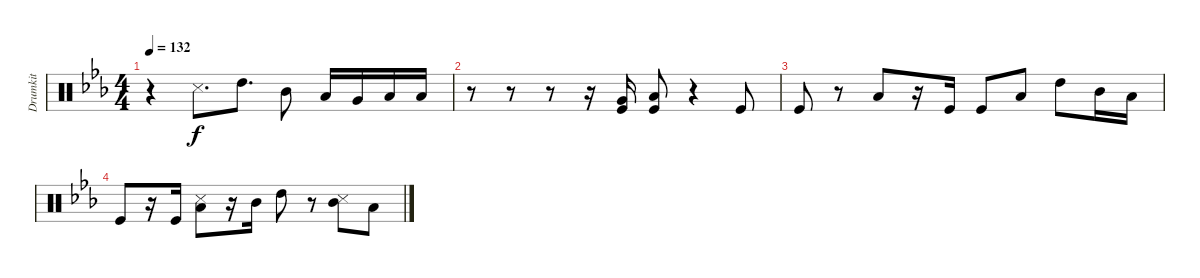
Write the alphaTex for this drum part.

\track ("Drumkit" "Drumkit") {instrument percussion}
\staff {score}
\articulation defaults
\ts (4 4)
\tempo 132
\clef neutral
\ks eb
r.4{dy f} "Snare (side stick) 3".8{d} "High Tom (hit)".8{d} "Mid Tom (hit)".8 "Low Tom (hit)".16 "Very Low Tom (hit)".16 "Low Floor Tom (hit)".16 "Low Floor Tom (hit)".16 |
r.8 r.8 r.8 r.16 ("Very Low Tom (hit)" "Kick (hit)").16 ("Low Floor Tom (hit)" "Kick (hit)").8 r.4 "Kick (hit)".8 |
"Kick (hit)".8 r.8 "Low Floor Tom (hit)".8 r.16 "Kick (hit)".16 "Kick (hit)".8 "Low Tom (hit)".8 "High Tom (hit)".8 "Mid Tom (hit)".16 "Low Tom (hit)".16 |
"Kick (hit)".8 r.16 "Kick (hit)".16 ("Low Tom (hit)" "Snare (side stick) 3").8 r.16 "Mid Tom (hit)".16 "High Tom (hit)".8 r.8 ("Mid Tom (hit)" "Snare (side stick) 3").8 "Low Tom (hit)".8
